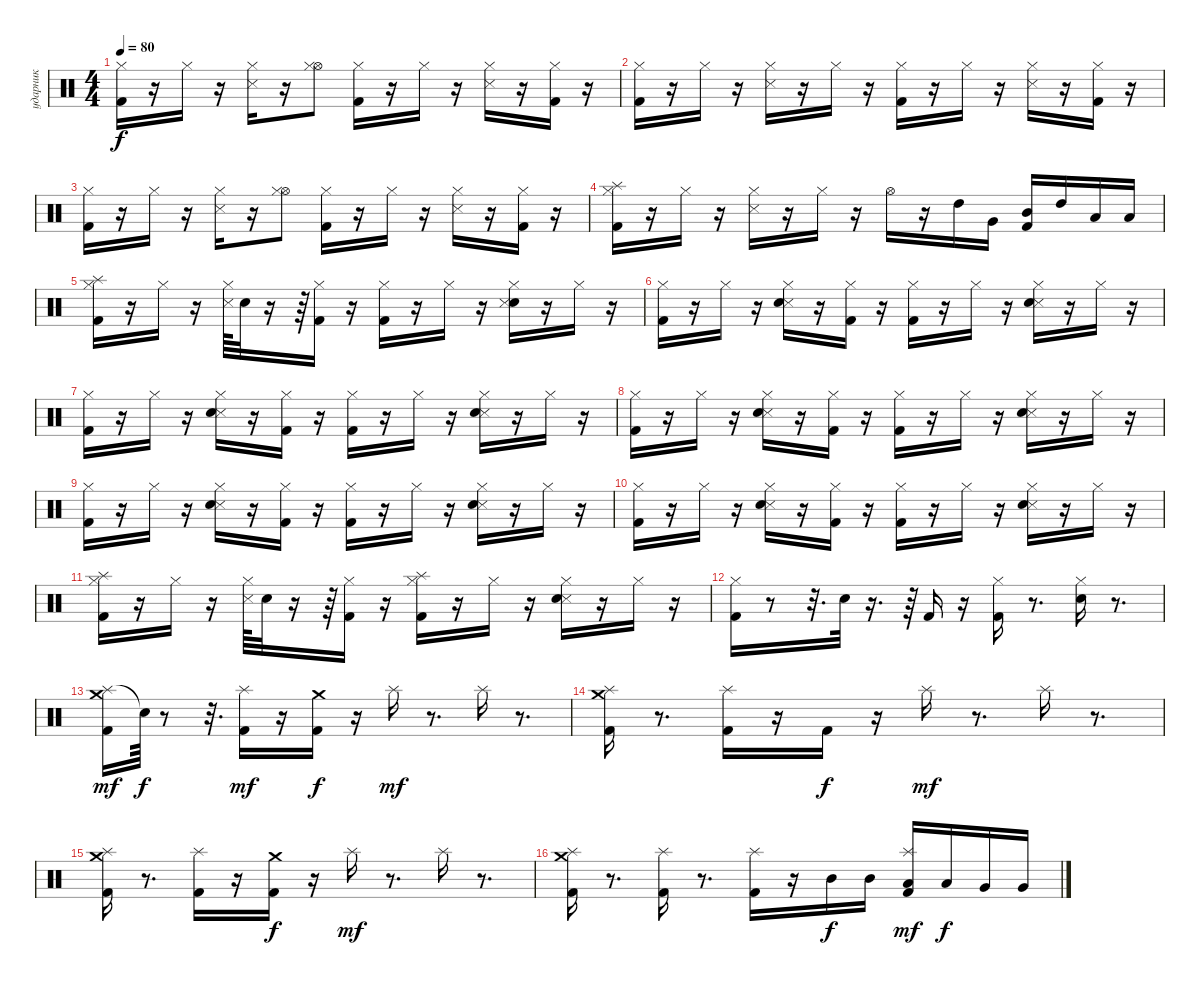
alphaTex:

\track ("ударник" "ударник") {instrument percussion}
\staff {score}
\articulation defaults
\ts (4 4)
\tempo 80
\clef neutral
\ks c
("Kick (hit) 2" "Hi-Hat (closed)").16{dy f} r.16 "Hi-Hat (closed)".16 r.16 ("Snare (side stick) 3" "Hi-Hat (closed)").16 r.16 ("Hi-Hat (open)" "Hi-Hat (closed)").8 ("Kick (hit) 2" "Hi-Hat (closed)").16 r.16 "Hi-Hat (closed)".16 r.16 ("Snare (side stick) 3" "Hi-Hat (closed)").16 r.16 ("Hi-Hat (closed)" "Kick (hit) 2").16 r.16 |
("Kick (hit) 2" "Hi-Hat (closed)").16 r.16 "Hi-Hat (closed)".16 r.16 ("Snare (side stick) 3" "Hi-Hat (closed)").16 r.16 "Hi-Hat (closed)".16 r.16 ("Kick (hit) 2" "Hi-Hat (closed)").16 r.16 "Hi-Hat (closed)".16 r.16 ("Hi-Hat (closed)" "Snare (side stick) 3").16 r.16 ("Kick (hit) 2" "Hi-Hat (closed)").16 r.16 |
("Kick (hit) 2" "Hi-Hat (closed)").16 r.16 "Hi-Hat (closed)".16 r.16 ("Snare (side stick) 3" "Hi-Hat (closed)").16 r.16 ("Hi-Hat (open)" "Hi-Hat (closed)").8 ("Kick (hit) 2" "Hi-Hat (closed)").16 r.16 "Hi-Hat (closed)".16 r.16 ("Snare (side stick) 3" "Hi-Hat (closed)").16 r.16 ("Hi-Hat (closed)" "Kick (hit) 2").16 r.16 |
("Splash (hit)" "Kick (hit) 2" "Hi-Hat (closed)").16 r.16 "Hi-Hat (closed)".16 r.16 ("Snare (side stick) 3" "Hi-Hat (closed)").16 r.16 "Hi-Hat (closed)".16 r.16 "Hi-Hat (open)".16 r.16 "High Tom (hit)".16 "Very Low Tom (hit)".16 ("Kick (hit) 2" "Mid Tom (hit)").16 "High Tom (hit)".16 "Low Tom (hit)".16 "Low Tom (hit)".16 |
("Splash (hit)" "Kick (hit) 2" "Hi-Hat (closed)").16 r.16 "Hi-Hat (closed)".16 r.16 ("Snare (side stick) 3" "Hi-Hat (closed)").64 "Hand Clap (hit)".32 r.16 r.64 ("Kick (hit) 2" "Hi-Hat (closed)").16 r.16 ("Hi-Hat (closed)" "Kick (hit) 2").16 r.16 "Hi-Hat (closed)".16 r.16 ("Hand Clap (hit)" "Snare (side stick) 3" "Hi-Hat (closed)").16 r.16 "Hi-Hat (closed)".16 r.16 |
("Hi-Hat (closed)" "Kick (hit) 2").16 r.16 "Hi-Hat (closed)".16 r.16 ("Hi-Hat (closed)" "Snare (side stick) 3" "Hand Clap (hit)").16 r.16 ("Kick (hit) 2" "Hi-Hat (closed)").16 r.16 ("Hi-Hat (closed)" "Kick (hit) 2").16 r.16 "Hi-Hat (closed)".16 r.16 ("Snare (side stick) 3" "Hi-Hat (closed)" "Hand Clap (hit)").16 r.16 "Hi-Hat (closed)".16 r.16 |
("Kick (hit) 2" "Hi-Hat (closed)").16 r.16 "Hi-Hat (closed)".16 r.16 ("Hi-Hat (closed)" "Snare (side stick) 3" "Hand Clap (hit)").16 r.16 ("Hi-Hat (closed)" "Kick (hit) 2").16 r.16 ("Kick (hit) 2" "Hi-Hat (closed)").16 r.16 "Hi-Hat (closed)".16 r.16 ("Snare (side stick) 3" "Hi-Hat (closed)" "Hand Clap (hit)").16 r.16 "Hi-Hat (closed)".16 r.16 |
("Hi-Hat (closed)" "Kick (hit) 2").16 r.16 "Hi-Hat (closed)".16 r.16 ("Snare (side stick) 3" "Hi-Hat (closed)" "Hand Clap (hit)").16 r.16 ("Kick (hit) 2" "Hi-Hat (closed)").16 r.16 ("Hi-Hat (closed)" "Kick (hit) 2").16 r.16 "Hi-Hat (closed)".16 r.16 ("Snare (side stick) 3" "Hand Clap (hit)" "Hi-Hat (closed)").16 r.16 "Hi-Hat (closed)".16 r.16 |
("Kick (hit) 2" "Hi-Hat (closed)").16 r.16 "Hi-Hat (closed)".16 r.16 ("Hi-Hat (closed)" "Snare (side stick) 3" "Hand Clap (hit)").16 r.16 ("Hi-Hat (closed)" "Kick (hit) 2").16 r.16 ("Kick (hit) 2" "Hi-Hat (closed)").16 r.16 "Hi-Hat (closed)".16 r.16 ("Snare (side stick) 3" "Hi-Hat (closed)" "Hand Clap (hit)").16 r.16 "Hi-Hat (closed)".16 r.16 |
("Kick (hit) 2" "Hi-Hat (closed)").16 r.16 "Hi-Hat (closed)".16 r.16 ("Snare (side stick) 3" "Hi-Hat (closed)" "Hand Clap (hit)").16 r.16 ("Kick (hit) 2" "Hi-Hat (closed)").16 r.16 ("Hi-Hat (closed)" "Kick (hit) 2").16 r.16 "Hi-Hat (closed)".16 r.16 ("Hi-Hat (closed)" "Snare (side stick) 3" "Hand Clap (hit)").16 r.16 "Hi-Hat (closed)".16 r.16 |
("Splash (hit)" "Hi-Hat (closed)" "Kick (hit) 2").16 r.16 "Hi-Hat (closed)".16 r.16 ("Snare (side stick) 3" "Hi-Hat (closed)").64 "Hand Clap (hit)".32 r.16 r.64 ("Kick (hit) 2" "Hi-Hat (closed)").16 r.16 ("Splash (hit)" "Hi-Hat (closed)" "Kick (hit) 2").16 r.16 "Hi-Hat (closed)".16 r.16 ("Snare (side stick) 3" "Hand Clap (hit)" "Hi-Hat (closed)").16 r.16 "Hi-Hat (closed)".16 r.16 |
("Hi-Hat (closed)" "Kick (hit) 2").16 r.8 r.32{d} "Hand Clap (hit)".32 r.16{d} r.64 "Kick (hit) 2".16 r.16 ("Kick (hit) 2" "Hi-Hat (closed)").16 r.8{d} ("Hand Clap (hit)" "Hi-Hat (closed)").16 r.8{d} |
("Splash (hit)" "Crash medium (hit)" "Kick (hit) 2").16{dy mf} "Snare (hit)"{t}.64{dy f} r.8 r.32{d} ("Splash (hit)" "Kick (hit) 2").16{dy mf} r.16 ("Crash medium (hit)" "Kick (hit) 2").16{dy f} r.16 "Splash (hit)".16{dy mf} r.8{d} "Splash (hit)".16 r.8{d} |
("Splash (hit)" "Crash medium (hit)" "Kick (hit) 2").16 r.8{d} ("Splash (hit)" "Kick (hit) 2").16 r.16 "Kick (hit) 2".16{dy f} r.16 "Splash (hit)".16{dy mf} r.8{d} "Splash (hit)".16 r.8{d} |
("Splash (hit)" "Crash medium (hit)" "Kick (hit) 2").16 r.8{d} ("Splash (hit)" "Kick (hit) 2").16 r.16 ("Crash medium (hit)" "Kick (hit) 2").16{dy f} r.16 "Splash (hit)".16{dy mf} r.8{d} "Splash (hit)".16 r.8{d} |
("Splash (hit)" "Crash medium (hit)" "Kick (hit) 2").16 r.8{d} ("Splash (hit)" "Kick (hit) 2").16 r.8{d} ("Splash (hit)" "Kick (hit) 2").16 r.16 "Mid Tom (hit)".16{dy f} "Mid Tom (hit)".16 ("Low Tom (hit)" "Splash (hit)" "Kick (hit) 2").16{dy mf} "Low Tom (hit)".16{dy f} "Very Low Tom (hit)".16 "Very Low Tom (hit)".16
